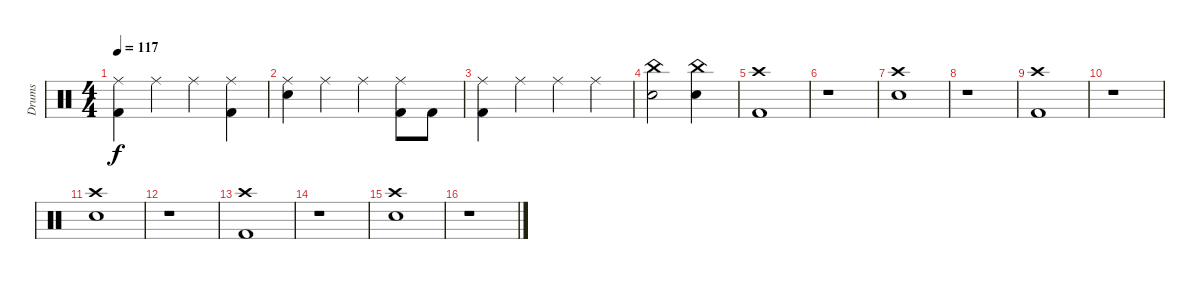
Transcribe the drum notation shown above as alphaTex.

\track ("Drums" "Drums") {instrument percussion}
\staff {score}
\articulation defaults
\ts (4 4)
\tempo 117
\clef neutral
\ks c
("Ride (middle)" "Kick (hit) 2").4{dy f} "Ride (middle)".4 "Ride (middle)".4 ("Ride (middle)" "Kick (hit) 2").4 |
("Ride (middle)" "Snare (hit) 2").4 "Ride (middle)".4 "Ride (middle)".4 ("Ride (middle)" "Kick (hit) 2").8 "Kick (hit) 2".8 |
("Ride (middle)" "Kick (hit) 2").4 "Ride (middle)".4 "Ride (middle)".4 "Ride (middle)".4 |
("China (hit)" "Snare (hit) 2").2 ("China (hit)" "Snare (hit) 2").4 |
("Crash high (hit)" "Kick (hit) 2").1 |
r.1 |
("Crash high (hit)" "Snare (hit) 2").1 |
r.1 |
("Crash high (hit)" "Kick (hit) 2").1 |
r.1 |
("Crash high (hit)" "Snare (hit) 2").1 |
r.1 |
("Crash high (hit)" "Kick (hit) 2").1 |
r.1 |
("Crash high (hit)" "Snare (hit) 2").1 |
r.1
